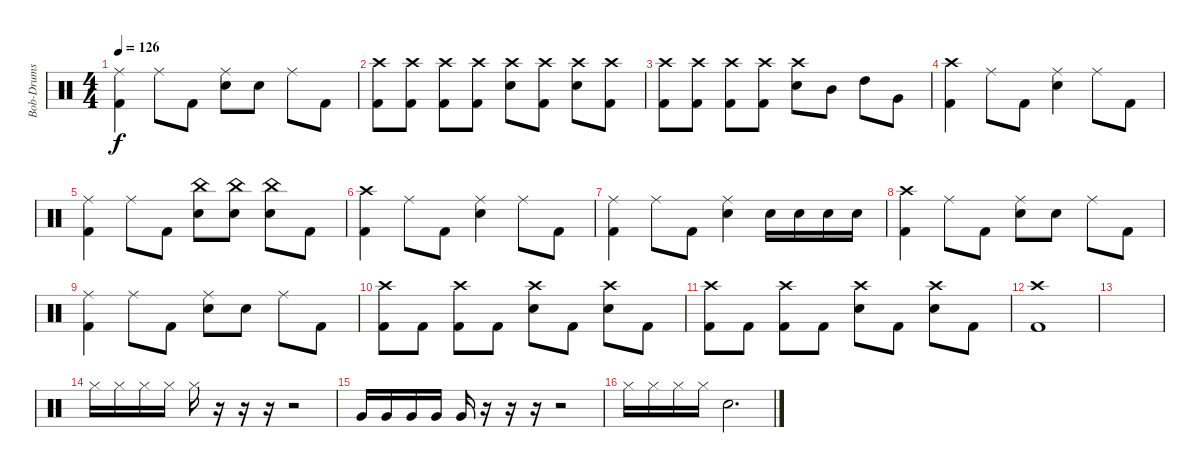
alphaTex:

\track ("Bob-Drums" "Bob-Drums") {instrument percussion}
\staff {score}
\articulation defaults
\ts (4 4)
\tempo 126
\clef neutral
\ks c
("Ride (middle)" "Kick (hit) 2").4{dy f} "Ride (middle)".8 "Kick (hit) 2".8 ("Ride (middle)" "Snare (hit) 2").8 "Snare (hit) 2".8 "Ride (middle)".8 "Kick (hit) 2".8 |
("Crash high (hit)" "Kick (hit) 2").8 ("Crash high (hit)" "Kick (hit) 2").8 ("Crash high (hit)" "Kick (hit) 2").8 ("Crash high (hit)" "Kick (hit) 2").8 ("Crash high (hit)" "Snare (hit) 2").8 ("Crash high (hit)" "Kick (hit) 2").8 ("Crash high (hit)" "Snare (hit) 2").8 ("Crash high (hit)" "Kick (hit) 2").8 |
("Crash high (hit)" "Kick (hit) 2").8 ("Crash high (hit)" "Kick (hit) 2").8 ("Crash high (hit)" "Kick (hit) 2").8 ("Crash high (hit)" "Kick (hit) 2").8 ("Crash high (hit)" "Snare (hit) 2").8 "Mid Tom (hit)".8 "High Tom (hit)".8 "Very Low Tom (hit)".8 |
("Crash high (hit)" "Kick (hit) 2").4 "Ride (middle)".8 "Kick (hit) 2".8 ("Ride (middle)" "Snare (hit) 2").4 "Ride (middle)".8 "Kick (hit) 2".8 |
("Ride (middle)" "Kick (hit) 2").4 "Ride (middle)".8 "Kick (hit) 2".8 ("China (hit)" "Snare (hit) 2").8 ("China (hit)" "Snare (hit) 2").8 ("China (hit)" "Snare (hit) 2").8 "Kick (hit) 2".8 |
("Crash high (hit)" "Kick (hit) 2").4 "Ride (middle)".8 "Kick (hit) 2".8 ("Ride (middle)" "Snare (hit) 2").4 "Ride (middle)".8 "Kick (hit) 2".8 |
("Ride (middle)" "Kick (hit) 2").4 "Ride (middle)".8 "Kick (hit) 2".8 ("Ride (middle)" "Snare (hit) 2").4 "Snare (hit) 2".16 "Snare (hit) 2".16 "Snare (hit) 2".16 "Snare (hit) 2".16 |
("Crash high (hit)" "Kick (hit) 2").4 "Ride (middle)".8 "Kick (hit) 2".8 ("Ride (middle)" "Snare (hit) 2").8 "Snare (hit) 2".8 "Ride (middle)".8 "Kick (hit) 2".8 |
("Ride (middle)" "Kick (hit) 2").4 "Ride (middle)".8 "Kick (hit) 2".8 ("Ride (middle)" "Snare (hit) 2").8 "Snare (hit) 2".8 "Ride (middle)".8 "Kick (hit) 2".8 |
("Crash high (hit)" "Kick (hit) 2").8 "Kick (hit) 2".8 ("Crash high (hit)" "Kick (hit) 2").8 "Kick (hit) 2".8 ("Crash high (hit)" "Snare (hit) 2").8 "Kick (hit) 2".8 ("Crash high (hit)" "Snare (hit) 2").8 "Kick (hit) 2".8 |
("Crash high (hit)" "Kick (hit) 2").8 "Kick (hit) 2".8 ("Crash high (hit)" "Kick (hit) 2").8 "Kick (hit) 2".8 ("Crash high (hit)" "Snare (hit) 2").8 "Kick (hit) 2".8 ("Crash high (hit)" "Snare (hit) 2").8 "Kick (hit) 2".8 |
("Crash high (hit)" "Kick (hit) 2").1 |
|
"Hi-Hat (closed)".16 "Hi-Hat (closed)".16 "Hi-Hat (closed)".16 "Hi-Hat (closed)".16 "Hi-Hat (closed)".16 r.16 r.16 r.16 r.2 |
"Very Low Tom (hit)".16 "Very Low Tom (hit)".16 "Very Low Tom (hit)".16 "Very Low Tom (hit)".16 "Very Low Tom (hit)".16 r.16 r.16 r.16 r.2 |
"Hi-Hat (closed)".16 "Hi-Hat (closed)".16 "Hi-Hat (closed)".16 "Hi-Hat (closed)".16 "Snare (hit) 2".2{d}
